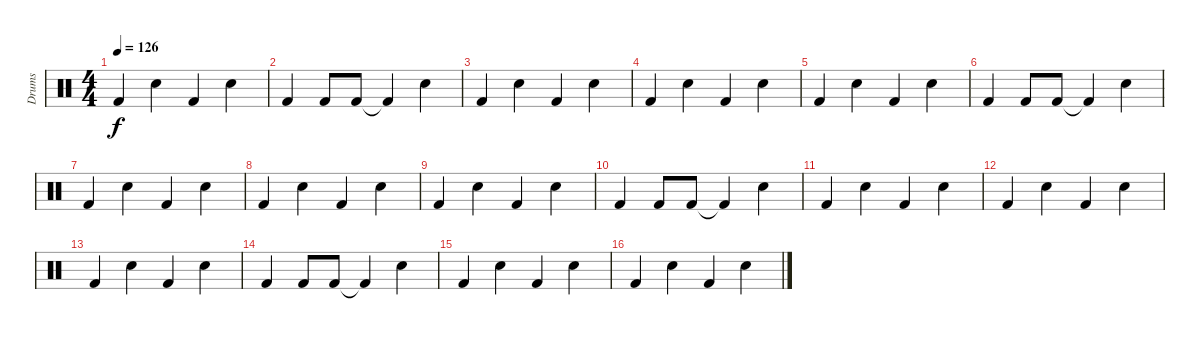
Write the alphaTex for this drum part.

\track ("Drums" "Drums") {instrument percussion}
\staff {score}
\articulation defaults
\ts (4 4)
\tempo 126
\clef neutral
\ks c "Kick (hit) 2".4{dy f} "Electric Snare (hit)".4 "Kick (hit) 2".4 "Electric Snare (hit)".4
|
"Kick (hit) 2".4 "Kick (hit) 2".8 "Kick (hit) 2".8 "Kick (hit) 2"{t}.4 "Electric Snare (hit)".4 |
"Kick (hit) 2".4 "Electric Snare (hit)".4 "Kick (hit) 2".4 "Electric Snare (hit)".4 |
"Kick (hit) 2".4 "Electric Snare (hit)".4 "Kick (hit) 2".4 "Electric Snare (hit)".4 |
"Kick (hit) 2".4 "Electric Snare (hit)".4 "Kick (hit) 2".4 "Electric Snare (hit)".4 |
"Kick (hit) 2".4 "Kick (hit) 2".8 "Kick (hit) 2".8 "Kick (hit) 2"{t}.4 "Electric Snare (hit)".4 |
"Kick (hit) 2".4 "Electric Snare (hit)".4 "Kick (hit) 2".4 "Electric Snare (hit)".4 |
"Kick (hit) 2".4 "Electric Snare (hit)".4 "Kick (hit) 2".4 "Electric Snare (hit)".4 |
"Kick (hit) 2".4 "Electric Snare (hit)".4 "Kick (hit) 2".4 "Electric Snare (hit)".4 |
"Kick (hit) 2".4 "Kick (hit) 2".8 "Kick (hit) 2".8 "Kick (hit) 2"{t}.4 "Electric Snare (hit)".4 |
"Kick (hit) 2".4 "Electric Snare (hit)".4 "Kick (hit) 2".4 "Electric Snare (hit)".4 |
"Kick (hit) 2".4 "Electric Snare (hit)".4 "Kick (hit) 2".4 "Electric Snare (hit)".4 |
"Kick (hit) 2".4 "Electric Snare (hit)".4 "Kick (hit) 2".4 "Electric Snare (hit)".4 |
"Kick (hit) 2".4 "Kick (hit) 2".8 "Kick (hit) 2".8 "Kick (hit) 2"{t}.4 "Electric Snare (hit)".4 |
"Kick (hit) 2".4 "Electric Snare (hit)".4 "Kick (hit) 2".4 "Electric Snare (hit)".4 |
"Kick (hit) 2".4 "Electric Snare (hit)".4 "Kick (hit) 2".4 "Electric Snare (hit)".4
